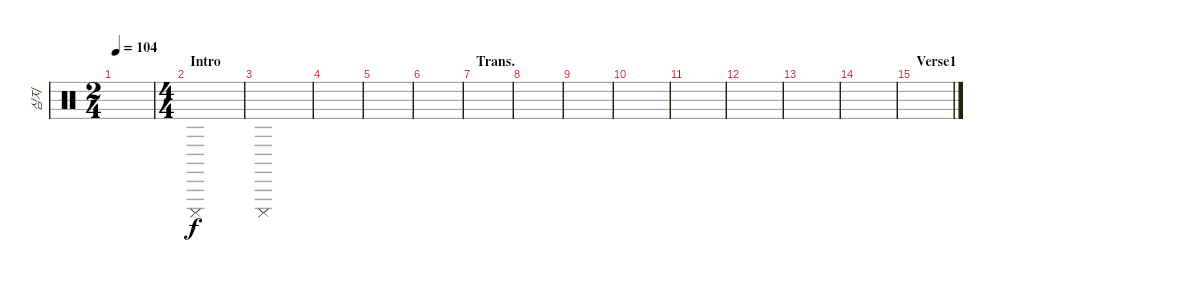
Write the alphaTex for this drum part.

\track ("심지" "심지") {instrument percussion}
\staff {score}
\articulation defaults
\ts (2 4)
\tempo 104
\clef neutral
\ks c
|
\ts (4 4)
\section ("" "Intro")
"Cuica (mute)".1 |
"Cuica (mute)".1 |
|
|
|
\section ("" "Trans.")
|
|
|
|
|
|
|
|
\section ("" "Verse1")
